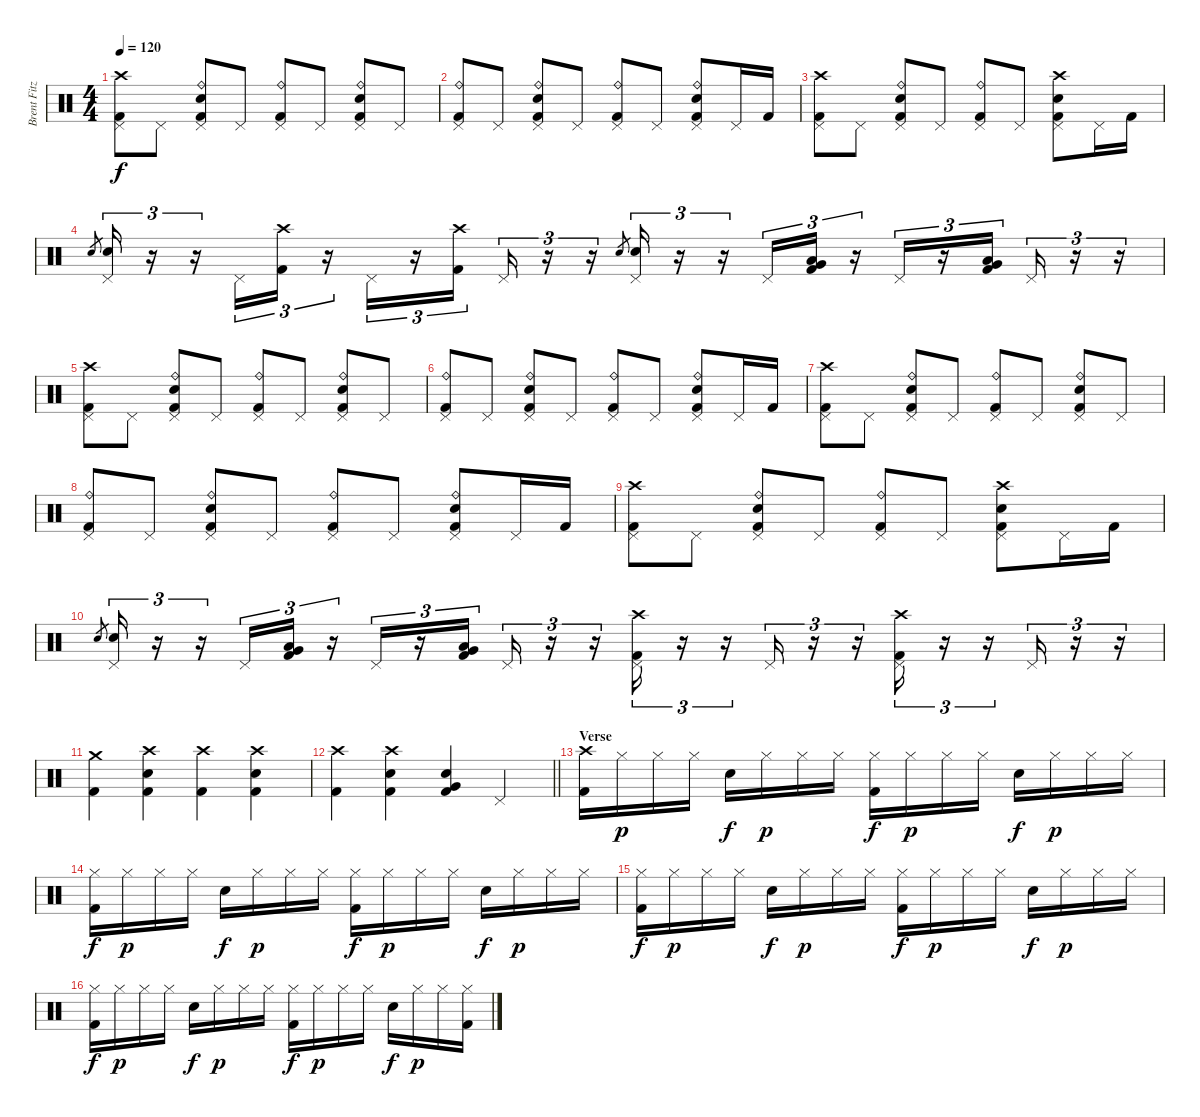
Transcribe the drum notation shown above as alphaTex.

\track ("Brent Fitz" "Brent Fitz") {instrument percussion}
\staff {score}
\articulation defaults
\ts (4 4)
\tempo 120
\clef neutral
\ks c
("Crash high (hit)" "Pedal Hi-Hat (hit)" "Kick (hit) 2").8{dy f} "Pedal Hi-Hat (hit)".8 ("Ride (bell)" "Electric Snare (hit)" "Pedal Hi-Hat (hit)" "Kick (hit) 2").8 "Pedal Hi-Hat (hit)".8 ("Ride (bell)" "Pedal Hi-Hat (hit)" "Kick (hit) 2").8 "Pedal Hi-Hat (hit)".8 ("Ride (bell)" "Electric Snare (hit)" "Pedal Hi-Hat (hit)" "Kick (hit) 2").8 "Pedal Hi-Hat (hit)".8 |
("Ride (bell)" "Pedal Hi-Hat (hit)" "Kick (hit) 2").8 "Pedal Hi-Hat (hit)".8 ("Ride (bell)" "Electric Snare (hit)" "Pedal Hi-Hat (hit)" "Kick (hit) 2").8 "Pedal Hi-Hat (hit)".8 ("Ride (bell)" "Pedal Hi-Hat (hit)" "Kick (hit) 2").8 "Pedal Hi-Hat (hit)".8 ("Ride (bell)" "Electric Snare (hit)" "Pedal Hi-Hat (hit)" "Kick (hit) 2").8 "Pedal Hi-Hat (hit)".16 "Kick (hit) 2".16 |
("Crash high (hit)" "Pedal Hi-Hat (hit)" "Kick (hit) 2").8 "Pedal Hi-Hat (hit)".8 ("Ride (bell)" "Electric Snare (hit)" "Pedal Hi-Hat (hit)" "Kick (hit) 2").8 "Pedal Hi-Hat (hit)".8 ("Ride (bell)" "Pedal Hi-Hat (hit)" "Kick (hit) 2").8 "Pedal Hi-Hat (hit)".8 ("Crash high (hit)" "Electric Snare (hit)" "Pedal Hi-Hat (hit)" "Kick (hit) 2").8 "Pedal Hi-Hat (hit)".16 "Kick (hit) 2".16 |
"Electric Snare (hit)".8{gr} ("Electric Snare (hit)" "Pedal Hi-Hat (hit)").16{tu (3 2)} r.16{tu (3 2)} r.16{tu (3 2)} "Pedal Hi-Hat (hit)".16{tu (3 2)} ("Crash high (hit)" "Kick (hit) 2").16{tu (3 2)} r.16{tu (3 2)} "Pedal Hi-Hat (hit)".16{tu (3 2)} r.16{tu (3 2)} ("Crash high (hit)" "Kick (hit) 2").16{tu (3 2)} "Pedal Hi-Hat (hit)".16{tu (3 2)} r.16{tu (3 2)} r.16{tu (3 2)} "Electric Snare (hit)".8{gr} ("Electric Snare (hit)" "Pedal Hi-Hat (hit)").16{tu (3 2)} r.16{tu (3 2)} r.16{tu (3 2)} "Pedal Hi-Hat (hit)".16{tu (3 2)} ("Low Tom (hit)" "Very Low Tom (hit)" "Kick (hit) 2").16{tu (3 2)} r.16{tu (3 2)} "Pedal Hi-Hat (hit)".16{tu (3 2)} r.16{tu (3 2)} ("Low Tom (hit)" "Very Low Tom (hit)" "Kick (hit) 2").16{tu (3 2)} "Pedal Hi-Hat (hit)".16{tu (3 2)} r.16{tu (3 2)} r.16{tu (3 2)} |
("Crash high (hit)" "Pedal Hi-Hat (hit)" "Kick (hit) 2").8 "Pedal Hi-Hat (hit)".8 ("Ride (bell)" "Electric Snare (hit)" "Pedal Hi-Hat (hit)" "Kick (hit) 2").8 "Pedal Hi-Hat (hit)".8 ("Ride (bell)" "Pedal Hi-Hat (hit)" "Kick (hit) 2").8 "Pedal Hi-Hat (hit)".8 ("Ride (bell)" "Electric Snare (hit)" "Pedal Hi-Hat (hit)" "Kick (hit) 2").8 "Pedal Hi-Hat (hit)".8 |
("Ride (bell)" "Pedal Hi-Hat (hit)" "Kick (hit) 2").8 "Pedal Hi-Hat (hit)".8 ("Ride (bell)" "Electric Snare (hit)" "Pedal Hi-Hat (hit)" "Kick (hit) 2").8 "Pedal Hi-Hat (hit)".8 ("Ride (bell)" "Pedal Hi-Hat (hit)" "Kick (hit) 2").8 "Pedal Hi-Hat (hit)".8 ("Ride (bell)" "Electric Snare (hit)" "Pedal Hi-Hat (hit)" "Kick (hit) 2").8 "Pedal Hi-Hat (hit)".16 "Kick (hit) 2".16 |
("Crash high (hit)" "Pedal Hi-Hat (hit)" "Kick (hit) 2").8 "Pedal Hi-Hat (hit)".8 ("Ride (bell)" "Electric Snare (hit)" "Pedal Hi-Hat (hit)" "Kick (hit) 2").8 "Pedal Hi-Hat (hit)".8 ("Ride (bell)" "Pedal Hi-Hat (hit)" "Kick (hit) 2").8 "Pedal Hi-Hat (hit)".8 ("Ride (bell)" "Electric Snare (hit)" "Pedal Hi-Hat (hit)" "Kick (hit) 2").8 "Pedal Hi-Hat (hit)".8 |
("Ride (bell)" "Pedal Hi-Hat (hit)" "Kick (hit) 2").8 "Pedal Hi-Hat (hit)".8 ("Ride (bell)" "Electric Snare (hit)" "Pedal Hi-Hat (hit)" "Kick (hit) 2").8 "Pedal Hi-Hat (hit)".8 ("Ride (bell)" "Pedal Hi-Hat (hit)" "Kick (hit) 2").8 "Pedal Hi-Hat (hit)".8 ("Ride (bell)" "Electric Snare (hit)" "Pedal Hi-Hat (hit)" "Kick (hit) 2").8 "Pedal Hi-Hat (hit)".16 "Kick (hit) 2".16 |
("Crash high (hit)" "Pedal Hi-Hat (hit)" "Kick (hit) 2").8 "Pedal Hi-Hat (hit)".8 ("Ride (bell)" "Electric Snare (hit)" "Pedal Hi-Hat (hit)" "Kick (hit) 2").8 "Pedal Hi-Hat (hit)".8 ("Ride (bell)" "Pedal Hi-Hat (hit)" "Kick (hit) 2").8 "Pedal Hi-Hat (hit)".8 ("Crash high (hit)" "Electric Snare (hit)" "Pedal Hi-Hat (hit)" "Kick (hit) 2").8 "Pedal Hi-Hat (hit)".16 "Kick (hit) 2".16 |
"Electric Snare (hit)".8{gr} ("Electric Snare (hit)" "Pedal Hi-Hat (hit)").16{tu (3 2)} r.16{tu (3 2)} r.16{tu (3 2)} "Pedal Hi-Hat (hit)".16{tu (3 2)} ("Low Tom (hit)" "Very Low Tom (hit)" "Kick (hit) 2").16{tu (3 2)} r.16{tu (3 2)} "Pedal Hi-Hat (hit)".16{tu (3 2)} r.16{tu (3 2)} ("Low Tom (hit)" "Very Low Tom (hit)" "Kick (hit) 2").16{tu (3 2)} "Pedal Hi-Hat (hit)".16{tu (3 2)} r.16{tu (3 2)} r.16{tu (3 2)} ("Crash high (hit)" "Kick (hit) 2" "Pedal Hi-Hat (hit)").16{tu (3 2)} r.16{tu (3 2)} r.16{tu (3 2)} "Pedal Hi-Hat (hit)".16{tu (3 2)} r.16{tu (3 2)} r.16{tu (3 2)} ("Crash high (hit)" "Kick (hit) 2" "Pedal Hi-Hat (hit)").16{tu (3 2)} r.16{tu (3 2)} r.16{tu (3 2)} "Pedal Hi-Hat (hit)".16{tu (3 2)} r.16{tu (3 2)} r.16{tu (3 2)} |
("Crash medium (hit)" "Kick (hit) 2").4 ("Crash high (hit)" "Electric Snare (hit)" "Kick (hit) 2").4 ("Crash high (hit)" "Kick (hit) 2").4 ("Crash high (hit)" "Electric Snare (hit)" "Kick (hit) 2").4 |
\barLineRight lightlight
("Crash high (hit)" "Kick (hit) 2").4 ("Crash high (hit)" "Electric Snare (hit)" "Kick (hit) 2").4 ("Electric Snare (hit)" "Very Low Tom (hit)" "Kick (hit) 2").4 "Pedal Hi-Hat (hit)".4 |
\section ("" "Verse")
("Crash high (hit)" "Kick (hit) 2").16 "Hi-Hat (closed)".16{dy p} "Hi-Hat (closed)".16 "Hi-Hat (closed)".16 "Electric Snare (hit)".16{dy f} "Hi-Hat (closed)".16{dy p} "Hi-Hat (closed)".16 "Hi-Hat (closed)".16 ("Hi-Hat (closed)" "Kick (hit) 2").16{dy f} "Hi-Hat (closed)".16{dy p} "Hi-Hat (closed)".16 "Hi-Hat (closed)".16 "Electric Snare (hit)".16{dy f} "Hi-Hat (closed)".16{dy p} "Hi-Hat (closed)".16 "Hi-Hat (closed)".16 |
("Hi-Hat (closed)" "Kick (hit) 2").16{dy f} "Hi-Hat (closed)".16{dy p} "Hi-Hat (closed)".16 "Hi-Hat (closed)".16 "Electric Snare (hit)".16{dy f} "Hi-Hat (closed)".16{dy p} "Hi-Hat (closed)".16 "Hi-Hat (closed)".16 ("Hi-Hat (closed)" "Kick (hit) 2").16{dy f} "Hi-Hat (closed)".16{dy p} "Hi-Hat (closed)".16 "Hi-Hat (closed)".16 "Electric Snare (hit)".16{dy f} "Hi-Hat (closed)".16{dy p} "Hi-Hat (closed)".16 "Hi-Hat (closed)".16 |
("Hi-Hat (closed)" "Kick (hit) 2").16{dy f} "Hi-Hat (closed)".16{dy p} "Hi-Hat (closed)".16 "Hi-Hat (closed)".16 "Electric Snare (hit)".16{dy f} "Hi-Hat (closed)".16{dy p} "Hi-Hat (closed)".16 "Hi-Hat (closed)".16 ("Hi-Hat (closed)" "Kick (hit) 2").16{dy f} "Hi-Hat (closed)".16{dy p} "Hi-Hat (closed)".16 "Hi-Hat (closed)".16 "Electric Snare (hit)".16{dy f} "Hi-Hat (closed)".16{dy p} "Hi-Hat (closed)".16 "Hi-Hat (closed)".16 |
("Hi-Hat (closed)" "Kick (hit) 2").16{dy f} "Hi-Hat (closed)".16{dy p} "Hi-Hat (closed)".16 "Hi-Hat (closed)".16 "Electric Snare (hit)".16{dy f} "Hi-Hat (closed)".16{dy p} "Hi-Hat (closed)".16 "Hi-Hat (closed)".16 ("Hi-Hat (closed)" "Kick (hit) 2").16{dy f} "Hi-Hat (closed)".16{dy p} "Hi-Hat (closed)".16 "Hi-Hat (closed)".16 "Electric Snare (hit)".16{dy f} "Hi-Hat (closed)".16{dy p} "Hi-Hat (closed)".16 ("Hi-Hat (closed)" "Kick (hit) 2").16
